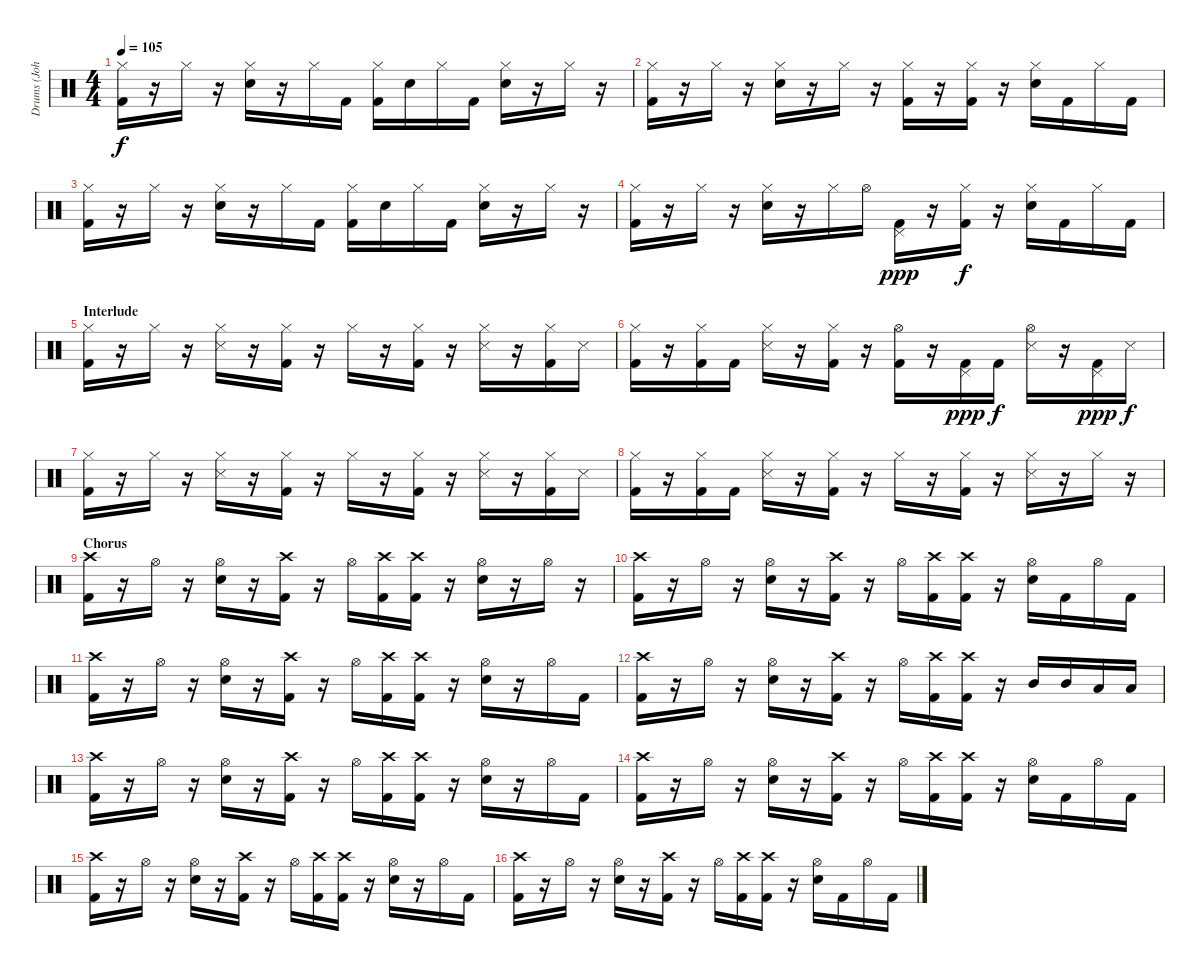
\track ("Drums (John Otto)" "Drums (Joh") {instrument percussion}
\staff {score}
\articulation defaults
\ts (4 4)
\tempo 105
\clef neutral
\ks c
("Hi-Hat (closed)" "Kick (hit) 2").16{dy f} r.16 "Hi-Hat (closed)".16 r.16 ("Hi-Hat (closed)" "Electric Snare (hit)").16 r.16 "Hi-Hat (closed)".16 "Kick (hit) 2".16 ("Hi-Hat (closed)" "Kick (hit) 2").16 "Electric Snare (hit)".16 "Hi-Hat (closed)".16 "Kick (hit) 2".16 ("Hi-Hat (closed)" "Electric Snare (hit)").16 r.16 "Hi-Hat (closed)".16 r.16 |
("Hi-Hat (closed)" "Kick (hit) 2").16 r.16 "Hi-Hat (closed)".16 r.16 ("Hi-Hat (closed)" "Electric Snare (hit)").16 r.16 "Hi-Hat (closed)".16 r.16 ("Hi-Hat (closed)" "Kick (hit) 2").16 r.16 ("Hi-Hat (closed)" "Kick (hit) 2").16 r.16 ("Hi-Hat (closed)" "Electric Snare (hit)").16 "Kick (hit) 2".16 "Hi-Hat (closed)".16 "Kick (hit) 2".16 |
("Hi-Hat (closed)" "Kick (hit) 2").16 r.16 "Hi-Hat (closed)".16 r.16 ("Hi-Hat (closed)" "Electric Snare (hit)").16 r.16 "Hi-Hat (closed)".16 "Kick (hit) 2".16 ("Hi-Hat (closed)" "Kick (hit) 2").16 "Electric Snare (hit)".16 "Hi-Hat (closed)".16 "Kick (hit) 2".16 ("Hi-Hat (closed)" "Electric Snare (hit)").16 r.16 "Hi-Hat (closed)".16 r.16 |
("Hi-Hat (closed)" "Kick (hit) 2").16 r.16 "Hi-Hat (closed)".16 r.16 ("Hi-Hat (closed)" "Electric Snare (hit)").16 r.16 "Hi-Hat (closed)".16 "Hi-Hat (open)".16 ("Pedal Hi-Hat (hit)" "Kick (hit) 2").16{dy ppp} r.16 ("Hi-Hat (closed)" "Kick (hit) 2").16{dy f} r.16 ("Hi-Hat (closed)" "Electric Snare (hit)").16 "Kick (hit) 2".16 "Hi-Hat (closed)".16 "Kick (hit) 2".16 |
\section ("" "Interlude")
("Hi-Hat (closed)" "Kick (hit) 2").16 r.16 "Hi-Hat (closed)".16 r.16 ("Hi-Hat (closed)" "Snare (side stick) 3").16 r.16 ("Hi-Hat (closed)" "Kick (hit) 2").16 r.16 "Hi-Hat (closed)".16 r.16 ("Hi-Hat (closed)" "Kick (hit) 2").16 r.16 ("Hi-Hat (closed)" "Snare (side stick) 3").16 r.16 ("Hi-Hat (closed)" "Kick (hit) 2").16 "Snare (side stick) 3".16 |
("Hi-Hat (closed)" "Kick (hit) 2").16 r.16 ("Hi-Hat (closed)" "Kick (hit) 2").16 "Kick (hit) 2".16 ("Hi-Hat (closed)" "Snare (side stick) 3").16 r.16 ("Hi-Hat (closed)" "Kick (hit) 2").16 r.16 ("Hi-Hat (open)" "Kick (hit) 2").16 r.16 ("Pedal Hi-Hat (hit)" "Kick (hit) 2").16{dy ppp} "Kick (hit) 2".16{dy f} ("Hi-Hat (open)" "Snare (side stick) 3").16 r.16 ("Pedal Hi-Hat (hit)" "Kick (hit) 2").16{dy ppp} "Snare (side stick) 3".16{dy f} |
("Hi-Hat (closed)" "Kick (hit) 2").16 r.16 "Hi-Hat (closed)".16 r.16 ("Hi-Hat (closed)" "Snare (side stick) 3").16 r.16 ("Hi-Hat (closed)" "Kick (hit) 2").16 r.16 "Hi-Hat (closed)".16 r.16 ("Hi-Hat (closed)" "Kick (hit) 2").16 r.16 ("Hi-Hat (closed)" "Snare (side stick) 3").16 r.16 ("Hi-Hat (closed)" "Kick (hit) 2").16 "Snare (side stick) 3".16 |
("Hi-Hat (closed)" "Kick (hit) 2").16 r.16 ("Hi-Hat (closed)" "Kick (hit) 2").16 "Kick (hit) 2".16 ("Hi-Hat (closed)" "Snare (side stick) 3").16 r.16 ("Hi-Hat (closed)" "Kick (hit) 2").16 r.16 "Hi-Hat (closed)".16 r.16 ("Hi-Hat (closed)" "Kick (hit) 2").16 r.16 ("Hi-Hat (closed)" "Snare (side stick) 3").16 r.16 "Hi-Hat (closed)".16 r.16 |
\section ("" "Chorus")
("Crash high (hit)" "Kick (hit) 2").16 r.16 "Hi-Hat (open)".16 r.16 ("Hi-Hat (open)" "Electric Snare (hit)").16 r.16 ("Crash high (hit)" "Kick (hit) 2").16 r.16 "Hi-Hat (open)".16 ("Crash high (hit)" "Kick (hit) 2").16 ("Crash high (hit)" "Kick (hit) 2").16 r.16 ("Hi-Hat (open)" "Electric Snare (hit)").16 r.16 "Hi-Hat (open)".16 r.16 |
("Crash high (hit)" "Kick (hit) 2").16 r.16 "Hi-Hat (open)".16 r.16 ("Hi-Hat (open)" "Electric Snare (hit)").16 r.16 ("Crash high (hit)" "Kick (hit) 2").16 r.16 "Hi-Hat (open)".16 ("Crash high (hit)" "Kick (hit) 2").16 ("Crash high (hit)" "Kick (hit) 2").16 r.16 ("Hi-Hat (open)" "Electric Snare (hit)").16 "Kick (hit) 2".16 "Hi-Hat (open)".16 "Kick (hit) 2".16 |
("Crash high (hit)" "Kick (hit) 2").16 r.16 "Hi-Hat (open)".16 r.16 ("Hi-Hat (open)" "Electric Snare (hit)").16 r.16 ("Crash high (hit)" "Kick (hit) 2").16 r.16 "Hi-Hat (open)".16 ("Crash high (hit)" "Kick (hit) 2").16 ("Crash high (hit)" "Kick (hit) 2").16 r.16 ("Hi-Hat (open)" "Electric Snare (hit)").16 r.16 "Hi-Hat (open)".16 "Kick (hit) 2".16 |
("Crash high (hit)" "Kick (hit) 2").16 r.16 "Hi-Hat (open)".16 r.16 ("Hi-Hat (open)" "Electric Snare (hit)").16 r.16 ("Crash high (hit)" "Kick (hit) 2").16 r.16 "Hi-Hat (open)".16 ("Crash high (hit)" "Kick (hit) 2").16 ("Crash high (hit)" "Kick (hit) 2").16 r.16 "Mid Tom (hit)".16 "Mid Tom (hit)".16 "Low Tom (hit)".16 "Low Tom (hit)".16 |
("Crash high (hit)" "Kick (hit) 2").16 r.16 "Hi-Hat (open)".16 r.16 ("Hi-Hat (open)" "Electric Snare (hit)").16 r.16 ("Crash high (hit)" "Kick (hit) 2").16 r.16 "Hi-Hat (open)".16 ("Crash high (hit)" "Kick (hit) 2").16 ("Crash high (hit)" "Kick (hit) 2").16 r.16 ("Hi-Hat (open)" "Electric Snare (hit)").16 r.16 "Hi-Hat (open)".16 "Kick (hit) 2".16 |
("Crash high (hit)" "Kick (hit) 2").16 r.16 "Hi-Hat (open)".16 r.16 ("Hi-Hat (open)" "Electric Snare (hit)").16 r.16 ("Crash high (hit)" "Kick (hit) 2").16 r.16 "Hi-Hat (open)".16 ("Crash high (hit)" "Kick (hit) 2").16 ("Crash high (hit)" "Kick (hit) 2").16 r.16 ("Hi-Hat (open)" "Electric Snare (hit)").16 "Kick (hit) 2".16 "Hi-Hat (open)".16 "Kick (hit) 2".16 |
("Crash high (hit)" "Kick (hit) 2").16 r.16 "Hi-Hat (open)".16 r.16 ("Hi-Hat (open)" "Electric Snare (hit)").16 r.16 ("Crash high (hit)" "Kick (hit) 2").16 r.16 "Hi-Hat (open)".16 ("Crash high (hit)" "Kick (hit) 2").16 ("Crash high (hit)" "Kick (hit) 2").16 r.16 ("Hi-Hat (open)" "Electric Snare (hit)").16 r.16 "Hi-Hat (open)".16 "Kick (hit) 2".16 |
("Crash high (hit)" "Kick (hit) 2").16 r.16 "Hi-Hat (open)".16 r.16 ("Hi-Hat (open)" "Electric Snare (hit)").16 r.16 ("Crash high (hit)" "Kick (hit) 2").16 r.16 "Hi-Hat (open)".16 ("Crash high (hit)" "Kick (hit) 2").16 ("Crash high (hit)" "Kick (hit) 2").16 r.16 ("Hi-Hat (open)" "Electric Snare (hit)").16 "Kick (hit) 2".16 "Hi-Hat (open)".16 "Kick (hit) 2".16
